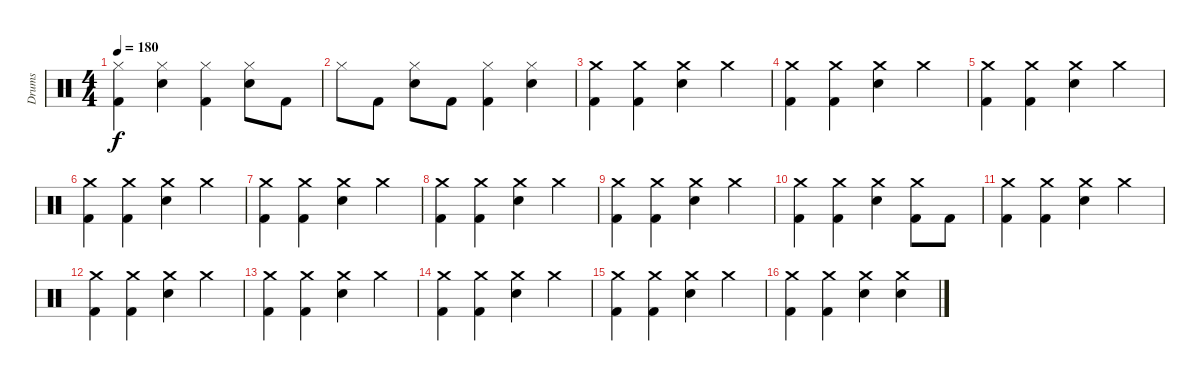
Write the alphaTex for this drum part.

\track ("Drums" "Drums") {instrument percussion}
\staff {score}
\articulation defaults
\ts (4 4)
\tempo 180
\clef neutral
\ks c
("Hi-Hat (closed)" "Kick (hit) 2").4{dy f} ("Hi-Hat (closed)" "Snare (hit) 2").4 ("Hi-Hat (closed)" "Kick (hit) 2").4 ("Hi-Hat (closed)" "Snare (hit) 2").8 "Kick (hit) 2".8 |
"Hi-Hat (closed)".8 "Kick (hit) 2".8 ("Hi-Hat (closed)" "Snare (hit) 2").8 "Kick (hit) 2".8 ("Hi-Hat (closed)" "Kick (hit) 2").4 ("Hi-Hat (closed)" "Snare (hit) 2").4 |
("Crash medium (hit)" "Kick (hit) 2").4 ("Crash medium (hit)" "Kick (hit) 2").4 ("Crash medium (hit)" "Snare (hit) 2").4 "Crash medium (hit)".4 |
("Crash medium (hit)" "Kick (hit) 2").4 ("Crash medium (hit)" "Kick (hit) 2").4 ("Crash medium (hit)" "Snare (hit) 2").4 "Crash medium (hit)".4 |
("Crash medium (hit)" "Kick (hit) 2").4 ("Crash medium (hit)" "Kick (hit) 2").4 ("Crash medium (hit)" "Snare (hit) 2").4 "Crash medium (hit)".4 |
("Crash medium (hit)" "Kick (hit) 2").4 ("Crash medium (hit)" "Kick (hit) 2").4 ("Crash medium (hit)" "Snare (hit) 2").4 "Crash medium (hit)".4 |
("Crash medium (hit)" "Kick (hit) 2").4 ("Crash medium (hit)" "Kick (hit) 2").4 ("Crash medium (hit)" "Snare (hit) 2").4 "Crash medium (hit)".4 |
("Crash medium (hit)" "Kick (hit) 2").4 ("Crash medium (hit)" "Kick (hit) 2").4 ("Crash medium (hit)" "Snare (hit) 2").4 "Crash medium (hit)".4 |
("Crash medium (hit)" "Kick (hit) 2").4 ("Crash medium (hit)" "Kick (hit) 2").4 ("Crash medium (hit)" "Snare (hit) 2").4 "Crash medium (hit)".4 |
("Crash medium (hit)" "Kick (hit) 2").4 ("Crash medium (hit)" "Kick (hit) 2").4 ("Crash medium (hit)" "Snare (hit) 2").4 ("Crash medium (hit)" "Kick (hit) 2").8 "Kick (hit) 2".8 |
("Crash medium (hit)" "Kick (hit) 2").4 ("Crash medium (hit)" "Kick (hit) 2").4 ("Crash medium (hit)" "Snare (hit) 2").4 "Crash medium (hit)".4 |
("Crash medium (hit)" "Kick (hit) 2").4 ("Crash medium (hit)" "Kick (hit) 2").4 ("Crash medium (hit)" "Snare (hit) 2").4 "Crash medium (hit)".4 |
("Crash medium (hit)" "Kick (hit) 2").4 ("Crash medium (hit)" "Kick (hit) 2").4 ("Crash medium (hit)" "Snare (hit) 2").4 "Crash medium (hit)".4 |
("Crash medium (hit)" "Kick (hit) 2").4 ("Crash medium (hit)" "Kick (hit) 2").4 ("Crash medium (hit)" "Snare (hit) 2").4 "Crash medium (hit)".4 |
("Crash medium (hit)" "Kick (hit) 2").4 ("Crash medium (hit)" "Kick (hit) 2").4 ("Crash medium (hit)" "Snare (hit) 2").4 "Crash medium (hit)".4 |
("Crash medium (hit)" "Kick (hit) 2").4 ("Crash medium (hit)" "Kick (hit) 2").4 ("Crash medium (hit)" "Snare (hit) 2").4 ("Crash medium (hit)" "Snare (hit) 2").4
